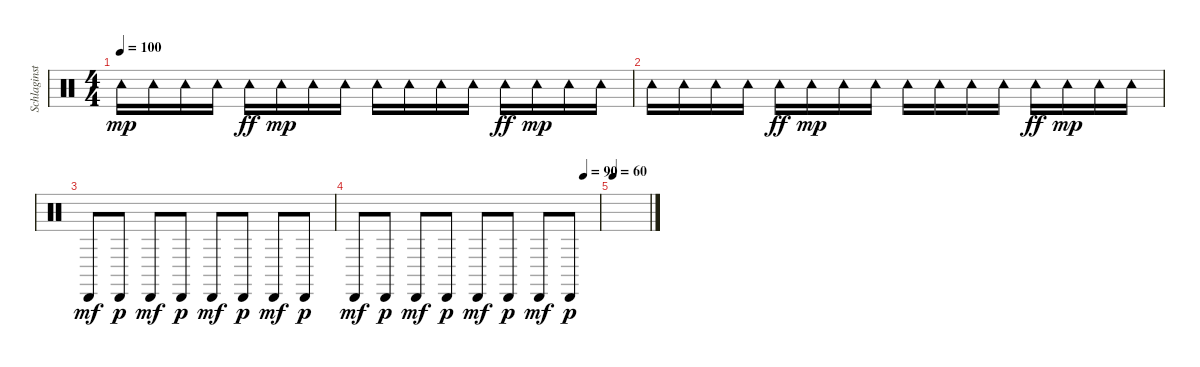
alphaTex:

\track ("Schlaginstrumente - Auswahl" "Schlaginst") {instrument percussion}
\staff {score}
\articulation defaults
\ts (4 4)
\tempo 100
\clef neutral
\ks c "Tambourine (hit)".16{dy mp} "Tambourine (hit)".16 "Tambourine (hit)".16 "Tambourine (hit)".16 "Tambourine (hit)".16{dy ff} "Tambourine (hit)".16{dy mp} "Tambourine (hit)".16 "Tambourine (hit)".16 "Tambourine (hit)".16 "Tambourine (hit)".16 "Tambourine (hit)".16 "Tambourine (hit)".16 "Tambourine (hit)".16{dy ff} "Tambourine (hit)".16{dy mp} "Tambourine (hit)".16 "Tambourine (hit)".16
|
"Tambourine (hit)".16 "Tambourine (hit)".16 "Tambourine (hit)".16 "Tambourine (hit)".16 "Tambourine (hit)".16{dy ff} "Tambourine (hit)".16{dy mp} "Tambourine (hit)".16 "Tambourine (hit)".16 "Tambourine (hit)".16 "Tambourine (hit)".16 "Tambourine (hit)".16 "Tambourine (hit)".16 "Tambourine (hit)".16{dy ff} "Tambourine (hit)".16{dy mp} "Tambourine (hit)".16 "Tambourine (hit)".16 |
"Cabasa (hit)".8{dy mf volume 7} "Cabasa (hit)".8{dy p} "Cabasa (hit)".8{dy mf} "Cabasa (hit)".8{dy p} "Cabasa (hit)".8{dy mf} "Cabasa (hit)".8{dy p} "Cabasa (hit)".8{dy mf} "Cabasa (hit)".8{dy p} |
\tempo (90 0.9375)
"Cabasa (hit)".8{dy mf} "Cabasa (hit)".8{dy p} "Cabasa (hit)".8{dy mf} "Cabasa (hit)".8{dy p} "Cabasa (hit)".8{dy mf} "Cabasa (hit)".8{dy p} "Cabasa (hit)".8{dy mf} "Cabasa (hit)".8{dy p} |
\tempo 60
